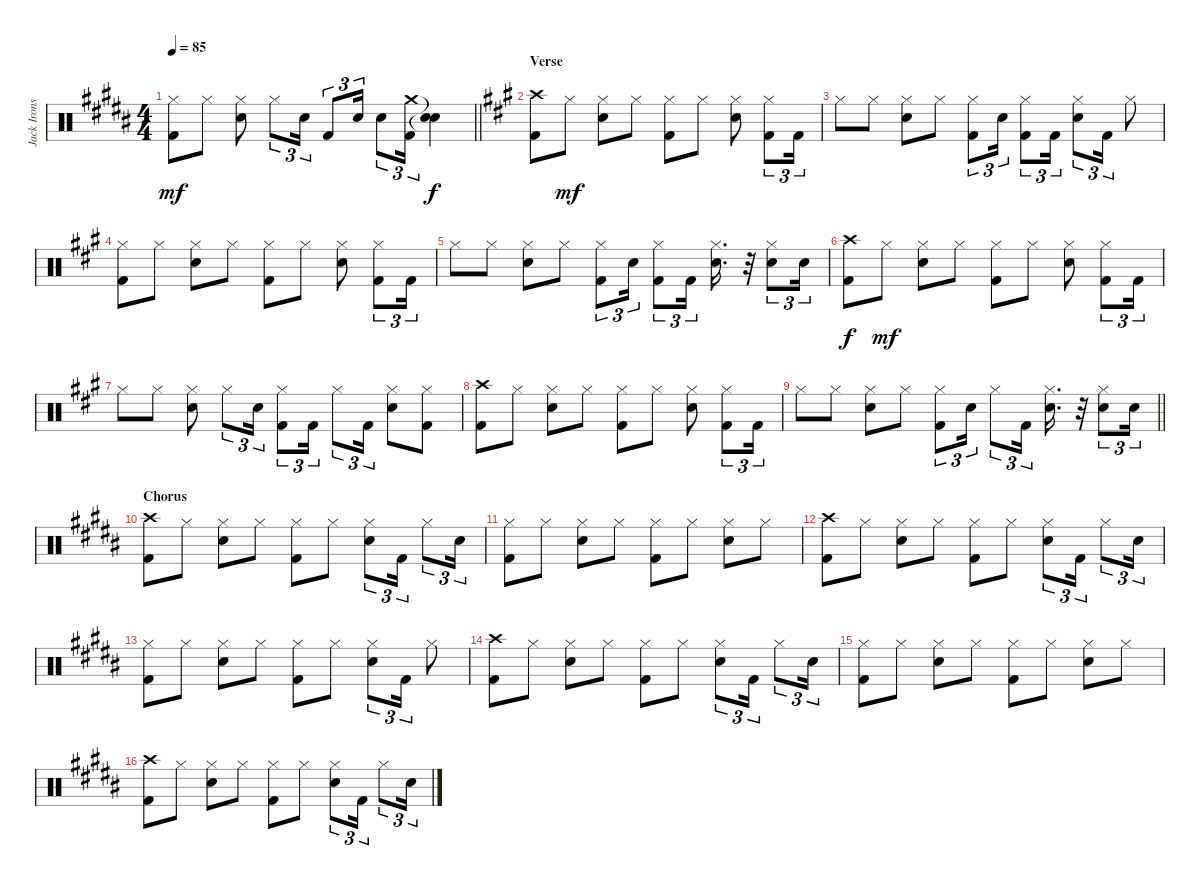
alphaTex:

\track ("Jack Irons" "Jack Irons") {instrument percussion}
\staff {score}
\articulation defaults
\ts (4 4)
\tempo 85
\clef neutral
\barLineRight lightlight
\ks b
("Hi-Hat (closed)" "Kick (hit) 2").8{dy mf} "Hi-Hat (closed)".8 ("Hi-Hat (closed)" "Electric Snare (hit)").8 "Hi-Hat (closed)".8{tu (3 2)} "Electric Snare (hit)".16{tu (3 2)} "Kick (hit) 2".8{tu (3 2)} "Electric Snare (hit)".16{tu (3 2)} "Electric Snare (hit)".8{tu (3 2)} ("Crash medium (hit)" "Kick (hit) 2").16{tu (3 2)} ("Snare (hit)"{t} "Snare (hit)"{t}).4{dy f} |
\section ("" "Verse")
\ks a
("Crash high (hit)" "Kick (hit) 2").8 "Hi-Hat (closed)".8{dy mf} ("Hi-Hat (closed)" "Electric Snare (hit)").8 "Hi-Hat (closed)".8 ("Hi-Hat (closed)" "Kick (hit) 2").8 "Hi-Hat (closed)".8 ("Hi-Hat (closed)" "Electric Snare (hit)").8 ("Hi-Hat (closed)" "Kick (hit) 2").8{tu (3 2)} "Kick (hit) 2".16{tu (3 2)} |
"Hi-Hat (closed)".8 "Hi-Hat (closed)".8 ("Hi-Hat (closed)" "Electric Snare (hit)").8 "Hi-Hat (closed)".8 ("Hi-Hat (closed)" "Kick (hit) 2").8{tu (3 2)} "Electric Snare (hit)".16{tu (3 2)} ("Hi-Hat (closed)" "Kick (hit) 2").8{tu (3 2)} "Kick (hit) 2".16{tu (3 2)} ("Hi-Hat (closed)" "Electric Snare (hit)").8{tu (3 2)} "Kick (hit) 2".16{tu (3 2)} "Hi-Hat (closed)".8 |
("Hi-Hat (closed)" "Kick (hit) 2").8 "Hi-Hat (closed)".8 ("Hi-Hat (closed)" "Electric Snare (hit)").8 "Hi-Hat (closed)".8 ("Hi-Hat (closed)" "Kick (hit) 2").8 "Hi-Hat (closed)".8 ("Hi-Hat (closed)" "Electric Snare (hit)").8 ("Hi-Hat (closed)" "Kick (hit) 2").8{tu (3 2)} "Kick (hit) 2".16{tu (3 2)} |
"Hi-Hat (closed)".8 "Hi-Hat (closed)".8 ("Hi-Hat (closed)" "Electric Snare (hit)").8 "Hi-Hat (closed)".8 ("Hi-Hat (closed)" "Kick (hit) 2").8{tu (3 2)} "Electric Snare (hit)".16{tu (3 2)} ("Hi-Hat (closed)" "Kick (hit) 2").8{tu (3 2)} "Kick (hit) 2".16{tu (3 2)} ("Hi-Hat (closed)" "Electric Snare (hit)").16{d} r.32 ("Hi-Hat (closed)" "Electric Snare (hit)").8{tu (3 2)} "Electric Snare (hit)".16{tu (3 2)} |
("Crash high (hit)" "Kick (hit) 2").8{dy f} "Hi-Hat (closed)".8{dy mf} ("Hi-Hat (closed)" "Electric Snare (hit)").8 "Hi-Hat (closed)".8 ("Hi-Hat (closed)" "Kick (hit) 2").8 "Hi-Hat (closed)".8 ("Hi-Hat (closed)" "Electric Snare (hit)").8 ("Hi-Hat (closed)" "Kick (hit) 2").8{tu (3 2)} "Kick (hit) 2".16{tu (3 2)} |
"Hi-Hat (closed)".8 "Hi-Hat (closed)".8 ("Hi-Hat (closed)" "Electric Snare (hit)").8 "Hi-Hat (closed)".8{tu (3 2)} "Electric Snare (hit)".16{tu (3 2)} ("Hi-Hat (closed)" "Kick (hit) 2").8{tu (3 2)} "Kick (hit) 2".16{tu (3 2)} "Hi-Hat (closed)".8{tu (3 2)} "Kick (hit) 2".16{tu (3 2)} ("Hi-Hat (closed)" "Electric Snare (hit)").8 ("Hi-Hat (closed)" "Kick (hit) 2").8 |
("Crash high (hit)" "Kick (hit) 2").8 "Hi-Hat (closed)".8 ("Hi-Hat (closed)" "Electric Snare (hit)").8 "Hi-Hat (closed)".8 ("Hi-Hat (closed)" "Kick (hit) 2").8 "Hi-Hat (closed)".8 ("Hi-Hat (closed)" "Electric Snare (hit)").8 ("Hi-Hat (closed)" "Kick (hit) 2").8{tu (3 2)} "Kick (hit) 2".16{tu (3 2)} |
\barLineRight lightlight "Hi-Hat (closed)".8 "Hi-Hat (closed)".8
("Hi-Hat (closed)" "Electric Snare (hit)").8 "Hi-Hat (closed)".8 ("Hi-Hat (closed)" "Kick (hit) 2").8{tu (3 2)} "Electric Snare (hit)".16{tu (3 2)} "Hi-Hat (closed)".8{tu (3 2)} "Kick (hit) 2".16{tu (3 2)} ("Hi-Hat (closed)" "Electric Snare (hit)").16{d} r.32 ("Hi-Hat (closed)" "Electric Snare (hit)").8{tu (3 2)} "Electric Snare (hit)".16{tu (3 2)} |
\section ("" "Chorus")
\ks b
("Crash high (hit)" "Kick (hit) 2").8 "Hi-Hat (closed)".8 ("Hi-Hat (closed)" "Electric Snare (hit)").8 "Hi-Hat (closed)".8 ("Hi-Hat (closed)" "Kick (hit) 2").8 "Hi-Hat (closed)".8 ("Hi-Hat (closed)" "Electric Snare (hit)").8{tu (3 2)} "Kick (hit) 2".16{tu (3 2)} "Hi-Hat (closed)".8{tu (3 2)} "Electric Snare (hit)".16{tu (3 2)} |
("Hi-Hat (closed)" "Kick (hit) 2").8 "Hi-Hat (closed)".8 ("Hi-Hat (closed)" "Electric Snare (hit)").8 "Hi-Hat (closed)".8 ("Hi-Hat (closed)" "Kick (hit) 2").8 "Hi-Hat (closed)".8 ("Hi-Hat (closed)" "Electric Snare (hit)").8 "Hi-Hat (closed)".8 |
("Crash high (hit)" "Kick (hit) 2").8 "Hi-Hat (closed)".8 ("Hi-Hat (closed)" "Electric Snare (hit)").8 "Hi-Hat (closed)".8 ("Hi-Hat (closed)" "Kick (hit) 2").8 "Hi-Hat (closed)".8 ("Hi-Hat (closed)" "Electric Snare (hit)").8{tu (3 2)} "Kick (hit) 2".16{tu (3 2)} "Hi-Hat (closed)".8{tu (3 2)} "Electric Snare (hit)".16{tu (3 2)} |
("Hi-Hat (closed)" "Kick (hit) 2").8 "Hi-Hat (closed)".8 ("Hi-Hat (closed)" "Electric Snare (hit)").8 "Hi-Hat (closed)".8 ("Hi-Hat (closed)" "Kick (hit) 2").8 "Hi-Hat (closed)".8 ("Hi-Hat (closed)" "Electric Snare (hit)").8{tu (3 2)} "Kick (hit) 2".16{tu (3 2)} "Hi-Hat (closed)".8 |
("Crash high (hit)" "Kick (hit) 2").8 "Hi-Hat (closed)".8 ("Hi-Hat (closed)" "Electric Snare (hit)").8 "Hi-Hat (closed)".8 ("Hi-Hat (closed)" "Kick (hit) 2").8 "Hi-Hat (closed)".8 ("Hi-Hat (closed)" "Electric Snare (hit)").8{tu (3 2)} "Kick (hit) 2".16{tu (3 2)} "Hi-Hat (closed)".8{tu (3 2)} "Electric Snare (hit)".16{tu (3 2)} |
("Hi-Hat (closed)" "Kick (hit) 2").8 "Hi-Hat (closed)".8 ("Hi-Hat (closed)" "Electric Snare (hit)").8 "Hi-Hat (closed)".8 ("Hi-Hat (closed)" "Kick (hit) 2").8 "Hi-Hat (closed)".8 ("Hi-Hat (closed)" "Electric Snare (hit)").8 "Hi-Hat (closed)".8 |
("Crash high (hit)" "Kick (hit) 2").8 "Hi-Hat (closed)".8 ("Hi-Hat (closed)" "Electric Snare (hit)").8 "Hi-Hat (closed)".8 ("Hi-Hat (closed)" "Kick (hit) 2").8 "Hi-Hat (closed)".8 ("Hi-Hat (closed)" "Electric Snare (hit)").8{tu (3 2)} "Kick (hit) 2".16{tu (3 2)} "Hi-Hat (closed)".8{tu (3 2)} "Electric Snare (hit)".16{tu (3 2)}
